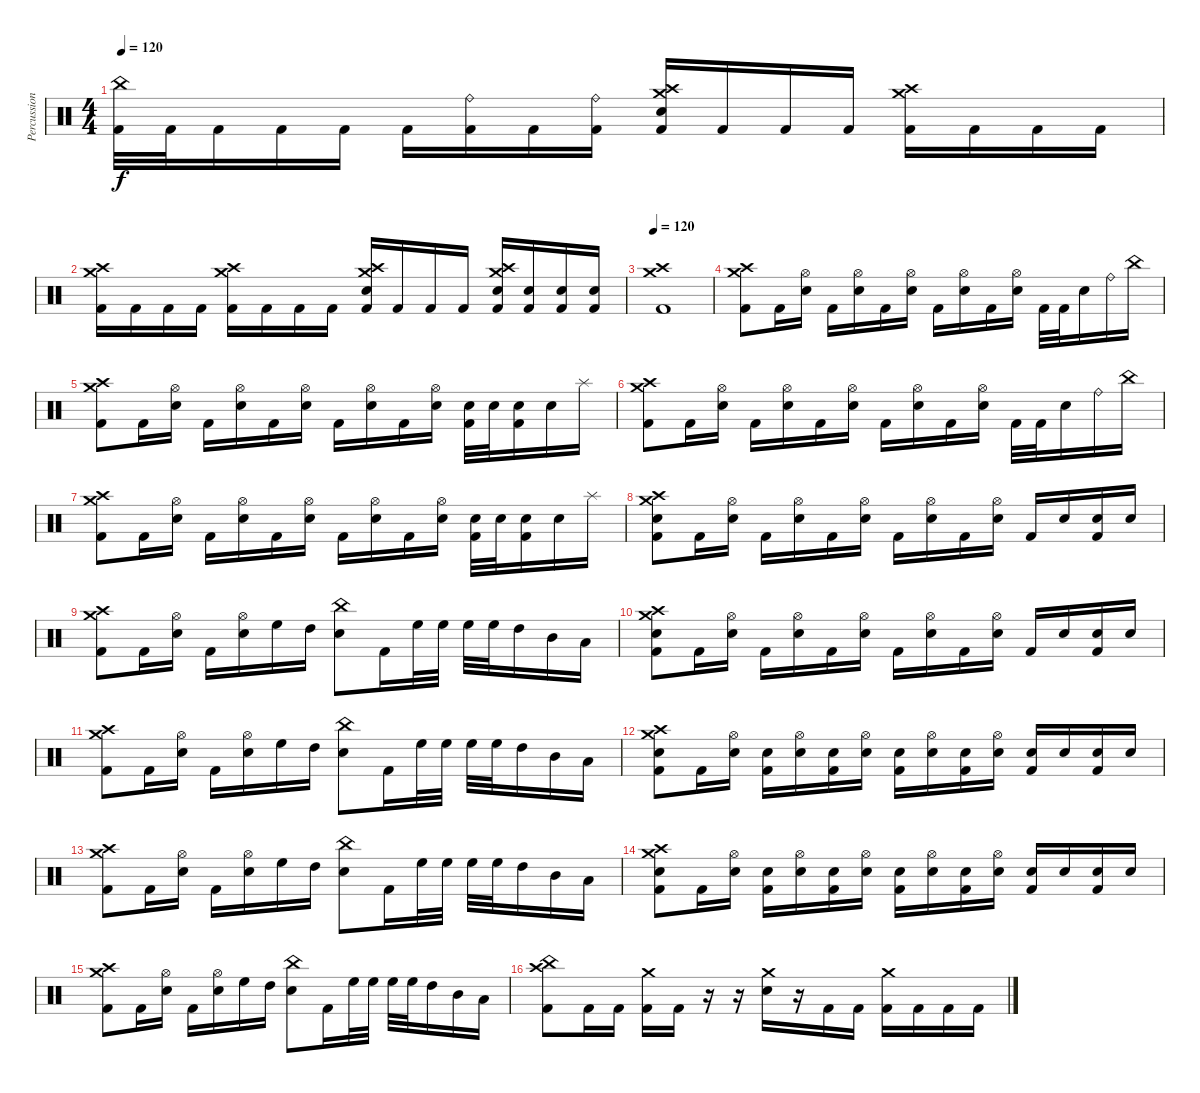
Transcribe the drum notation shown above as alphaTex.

\track ("Percussion" "Percussion") {instrument percussion}
\staff {score}
\articulation defaults
\ts (4 4)
\tempo 120
\clef neutral
\ks c
("China (hit)" "Kick (hit) 2").32{dy f} "Kick (hit) 2".32 "Kick (hit) 2".16 "Kick (hit) 2".16 "Kick (hit) 2".16 "Kick (hit) 2".16 ("Ride (bell)" "Kick (hit) 2").16 "Kick (hit) 2".16 ("Ride (bell)" "Kick (hit) 2").16 ("Crash high (hit)" "Crash medium (hit)" "Snare (hit) 2" "Kick (hit) 2").16 "Kick (hit) 2".16 "Kick (hit) 2".16 "Kick (hit) 2".16 ("Crash high (hit)" "Crash medium (hit)" "Kick (hit) 2").16 "Kick (hit) 2".16 "Kick (hit) 2".16 "Kick (hit) 2".16 |
("Crash high (hit)" "Crash medium (hit)" "Kick (hit) 2").16 "Kick (hit) 2".16 "Kick (hit) 2".16 "Kick (hit) 2".16 ("Crash high (hit)" "Crash medium (hit)" "Kick (hit) 2").16 "Kick (hit) 2".16 "Kick (hit) 2".16 "Kick (hit) 2".16 ("Crash high (hit)" "Crash medium (hit)" "Snare (hit) 2" "Kick (hit) 2").16 "Kick (hit) 2".16 "Kick (hit) 2".16 "Kick (hit) 2".16 ("Crash high (hit)" "Crash medium (hit)" "Snare (hit) 2" "Kick (hit) 2").16 ("Snare (hit) 2" "Kick (hit) 2").16 ("Snare (hit) 2" "Kick (hit) 2").16 ("Snare (hit) 2" "Kick (hit) 2").16 |
\tempo 120
("Crash high (hit)" "Crash medium (hit)" "Kick (hit) 2").1 |
("Crash high (hit)" "Crash medium (hit)" "Kick (hit) 2").8 "Kick (hit) 2".16 ("Hi-Hat (open)" "Snare (hit) 2").16 "Kick (hit) 2".16 ("Hi-Hat (open)" "Snare (hit) 2").16 "Kick (hit) 2".16 ("Hi-Hat (open)" "Snare (hit) 2").16 "Kick (hit) 2".16 ("Hi-Hat (open)" "Snare (hit) 2").16 "Kick (hit) 2".16 ("Hi-Hat (open)" "Snare (hit) 2").16 "Kick (hit) 2".32 "Kick (hit) 2".32 "Snare (hit) 2".16 "Ride (bell)".16 "China (hit)".16 |
("Crash high (hit)" "Crash medium (hit)" "Kick (hit) 2").8 "Kick (hit) 2".16 ("Hi-Hat (open)" "Snare (hit) 2").16 "Kick (hit) 2".16 ("Hi-Hat (open)" "Snare (hit) 2").16 "Kick (hit) 2".16 ("Hi-Hat (open)" "Snare (hit) 2").16 "Kick (hit) 2".16 ("Hi-Hat (open)" "Snare (hit) 2").16 "Kick (hit) 2".16 ("Hi-Hat (open)" "Snare (hit) 2").16 ("Snare (hit) 2" "Kick (hit) 2").32 "Snare (hit) 2".32 ("Snare (hit) 2" "Kick (hit) 2").16 "Snare (hit) 2".16 "Splash (hit)".16 |
("Crash high (hit)" "Crash medium (hit)" "Kick (hit) 2").8 "Kick (hit) 2".16 ("Hi-Hat (open)" "Snare (hit) 2").16 "Kick (hit) 2".16 ("Hi-Hat (open)" "Snare (hit) 2").16 "Kick (hit) 2".16 ("Hi-Hat (open)" "Snare (hit) 2").16 "Kick (hit) 2".16 ("Hi-Hat (open)" "Snare (hit) 2").16 "Kick (hit) 2".16 ("Hi-Hat (open)" "Snare (hit) 2").16 "Kick (hit) 2".32 "Kick (hit) 2".32 "Snare (hit) 2".16 "Ride (bell)".16 "China (hit)".16 |
("Crash high (hit)" "Crash medium (hit)" "Kick (hit) 2").8 "Kick (hit) 2".16 ("Hi-Hat (open)" "Snare (hit) 2").16 "Kick (hit) 2".16 ("Hi-Hat (open)" "Snare (hit) 2").16 "Kick (hit) 2".16 ("Hi-Hat (open)" "Snare (hit) 2").16 "Kick (hit) 2".16 ("Hi-Hat (open)" "Snare (hit) 2").16 "Kick (hit) 2".16 ("Hi-Hat (open)" "Snare (hit) 2").16 ("Snare (hit) 2" "Kick (hit) 2").32 "Snare (hit) 2".32 ("Snare (hit) 2" "Kick (hit) 2").16 "Snare (hit) 2".16 "Splash (hit)".16 |
("Crash high (hit)" "Crash medium (hit)" "Snare (hit) 2" "Kick (hit) 2").8 "Kick (hit) 2".16 ("Hi-Hat (open)" "Snare (hit) 2").16 "Kick (hit) 2".16 ("Hi-Hat (open)" "Snare (hit) 2").16 "Kick (hit) 2".16 ("Hi-Hat (open)" "Snare (hit) 2").16 "Kick (hit) 2".16 ("Hi-Hat (open)" "Snare (hit) 2").16 "Kick (hit) 2".16 ("Hi-Hat (open)" "Snare (hit) 2").16 "Kick (hit) 2".16 "Snare (hit) 2".16 ("Snare (hit) 2" "Kick (hit) 2").16 "Snare (hit) 2".16 |
("Crash high (hit)" "Crash medium (hit)" "Kick (hit) 2").8 "Kick (hit) 2".16 ("Hi-Hat (open)" "Snare (hit) 2").16 "Kick (hit) 2".16 ("Hi-Hat (open)" "Snare (hit) 2").16 "High Floor Tom (hit)".16 "High Tom (hit)".16 ("China (hit)" "Snare (hit) 2").8 "Kick (hit) 2".16 "High Floor Tom (hit)".32 "High Floor Tom (hit)".32 "High Floor Tom (hit)".32 "High Floor Tom (hit)".32 "High Tom (hit)".16 "Mid Tom (hit)".16 "Low Tom (hit)".16 |
("Crash high (hit)" "Crash medium (hit)" "Snare (hit) 2" "Kick (hit) 2").8 "Kick (hit) 2".16 ("Hi-Hat (open)" "Snare (hit) 2").16 "Kick (hit) 2".16 ("Hi-Hat (open)" "Snare (hit) 2").16 "Kick (hit) 2".16 ("Hi-Hat (open)" "Snare (hit) 2").16 "Kick (hit) 2".16 ("Hi-Hat (open)" "Snare (hit) 2").16 "Kick (hit) 2".16 ("Hi-Hat (open)" "Snare (hit) 2").16 "Kick (hit) 2".16 "Snare (hit) 2".16 ("Snare (hit) 2" "Kick (hit) 2").16 "Snare (hit) 2".16 |
("Crash high (hit)" "Crash medium (hit)" "Kick (hit) 2").8 "Kick (hit) 2".16 ("Hi-Hat (open)" "Snare (hit) 2").16 "Kick (hit) 2".16 ("Hi-Hat (open)" "Snare (hit) 2").16 "High Floor Tom (hit)".16 "High Tom (hit)".16 ("China (hit)" "Snare (hit) 2").8 "Kick (hit) 2".16 "High Floor Tom (hit)".32 "High Floor Tom (hit)".32 "High Floor Tom (hit)".32 "High Floor Tom (hit)".32 "High Tom (hit)".16 "Mid Tom (hit)".16 "Low Tom (hit)".16 |
("Crash high (hit)" "Crash medium (hit)" "Snare (hit) 2" "Kick (hit) 2").8 "Kick (hit) 2".16 ("Hi-Hat (open)" "Snare (hit) 2").16 ("Snare (hit) 2" "Kick (hit) 2").16 ("Hi-Hat (open)" "Snare (hit) 2").16 ("Snare (hit) 2" "Kick (hit) 2").16 ("Hi-Hat (open)" "Snare (hit) 2").16 ("Snare (hit) 2" "Kick (hit) 2").16 ("Hi-Hat (open)" "Snare (hit) 2").16 ("Snare (hit) 2" "Kick (hit) 2").16 ("Hi-Hat (open)" "Snare (hit) 2").16 ("Snare (hit) 2" "Kick (hit) 2").16 "Snare (hit) 2".16 ("Snare (hit) 2" "Kick (hit) 2").16 "Snare (hit) 2".16 |
("Crash high (hit)" "Crash medium (hit)" "Kick (hit) 2").8 "Kick (hit) 2".16 ("Hi-Hat (open)" "Snare (hit) 2").16 "Kick (hit) 2".16 ("Hi-Hat (open)" "Snare (hit) 2").16 "High Floor Tom (hit)".16 "High Tom (hit)".16 ("China (hit)" "Snare (hit) 2").8 "Kick (hit) 2".16 "High Floor Tom (hit)".32 "High Floor Tom (hit)".32 "High Floor Tom (hit)".32 "High Floor Tom (hit)".32 "High Tom (hit)".16 "Mid Tom (hit)".16 "Low Tom (hit)".16 |
("Crash high (hit)" "Crash medium (hit)" "Snare (hit) 2" "Kick (hit) 2").8 "Kick (hit) 2".16 ("Hi-Hat (open)" "Snare (hit) 2").16 ("Snare (hit) 2" "Kick (hit) 2").16 ("Hi-Hat (open)" "Snare (hit) 2").16 ("Snare (hit) 2" "Kick (hit) 2").16 ("Hi-Hat (open)" "Snare (hit) 2").16 ("Snare (hit) 2" "Kick (hit) 2").16 ("Hi-Hat (open)" "Snare (hit) 2").16 ("Snare (hit) 2" "Kick (hit) 2").16 ("Hi-Hat (open)" "Snare (hit) 2").16 ("Snare (hit) 2" "Kick (hit) 2").16 "Snare (hit) 2".16 ("Snare (hit) 2" "Kick (hit) 2").16 "Snare (hit) 2".16 |
("Crash high (hit)" "Crash medium (hit)" "Kick (hit) 2").8 "Kick (hit) 2".16 ("Hi-Hat (open)" "Snare (hit) 2").16 "Kick (hit) 2".16 ("Hi-Hat (open)" "Snare (hit) 2").16 "High Floor Tom (hit)".16 "High Tom (hit)".16 ("China (hit)" "Snare (hit) 2").8 "Kick (hit) 2".16 "High Floor Tom (hit)".32 "High Floor Tom (hit)".32 "High Floor Tom (hit)".32 "High Floor Tom (hit)".32 "High Tom (hit)".16 "Mid Tom (hit)".16 "Low Tom (hit)".16 |
("Crash high (hit)" "China (hit)" "Kick (hit) 2").8 "Kick (hit) 2".16 "Kick (hit) 2".16 ("Crash medium (hit)" "Kick (hit) 2").16 "Kick (hit) 2".16 r.16 r.16 ("Crash medium (hit)" "Snare (hit) 2").16 r.16 "Kick (hit) 2".16 "Kick (hit) 2".16 ("Crash medium (hit)" "Kick (hit) 2").16 "Kick (hit) 2".16 "Kick (hit) 2".16 "Kick (hit) 2".16
